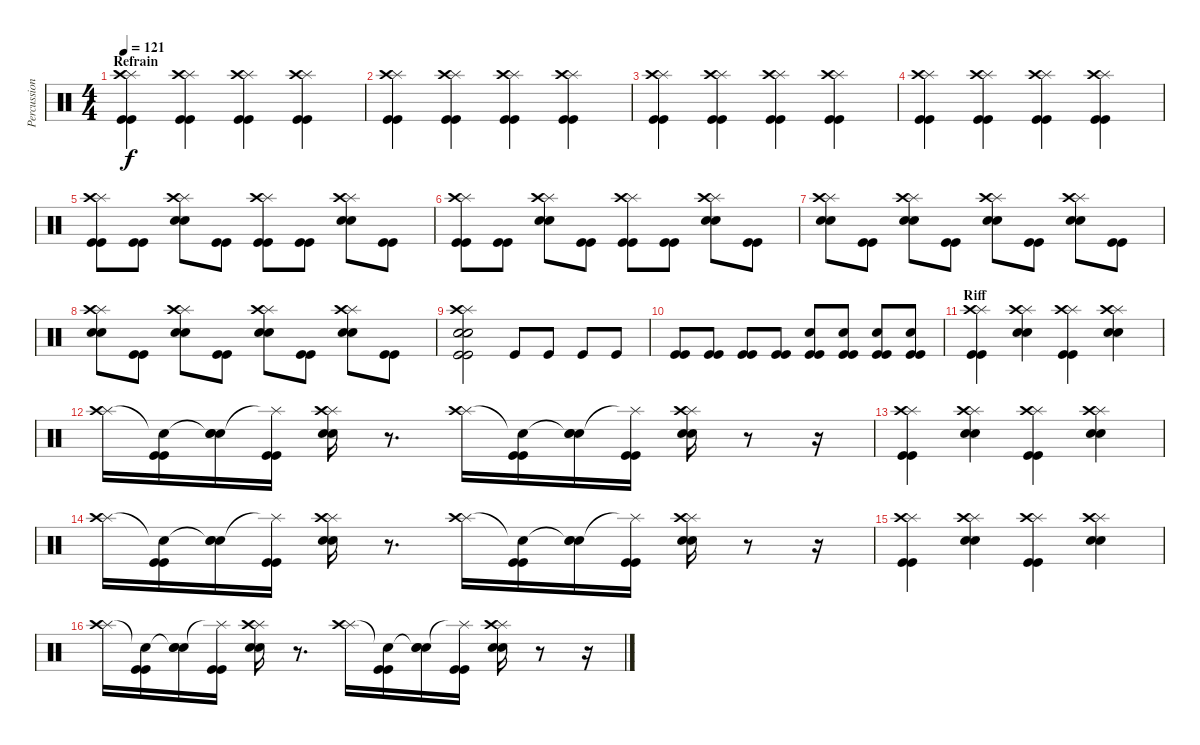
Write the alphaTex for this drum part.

\track ("Percussions" "Percussion") {instrument percussion}
\staff {score}
\articulation defaults
\ts (4 4)
\section ("" "Refrain")
\tempo 121
\clef neutral
\ks c
("Splash (hit)" "Crash high (hit)" "Kick (hit)" "Kick (hit)").4{dy f} ("Splash (hit)" "Crash high (hit)" "Kick (hit)" "Kick (hit)").4 ("Splash (hit)" "Crash high (hit)" "Kick (hit)" "Kick (hit)").4 ("Splash (hit)" "Crash high (hit)" "Kick (hit)" "Kick (hit)").4 |
("Splash (hit)" "Crash high (hit)" "Kick (hit)" "Kick (hit)").4 ("Splash (hit)" "Crash high (hit)" "Kick (hit)" "Kick (hit)").4 ("Splash (hit)" "Crash high (hit)" "Kick (hit)" "Kick (hit)").4 ("Splash (hit)" "Crash high (hit)" "Kick (hit)" "Kick (hit)").4 |
("Splash (hit)" "Crash high (hit)" "Kick (hit)" "Kick (hit)").4 ("Splash (hit)" "Crash high (hit)" "Kick (hit)" "Kick (hit)").4 ("Splash (hit)" "Crash high (hit)" "Kick (hit)" "Kick (hit)").4 ("Splash (hit)" "Crash high (hit)" "Kick (hit)" "Kick (hit)").4 |
("Splash (hit)" "Crash high (hit)" "Kick (hit)" "Kick (hit)").4 ("Splash (hit)" "Crash high (hit)" "Kick (hit)" "Kick (hit)").4 ("Splash (hit)" "Crash high (hit)" "Kick (hit)" "Kick (hit)").4 ("Splash (hit)" "Crash high (hit)" "Kick (hit)" "Kick (hit)").4 |
("Splash (hit)" "Crash high (hit)" "Kick (hit)" "Kick (hit)").8 ("Kick (hit)" "Kick (hit)").8 ("Splash (hit)" "Crash high (hit)" "Electric Snare (hit)" "Electric Snare (hit)").8 ("Kick (hit)" "Kick (hit)").8 ("Splash (hit)" "Crash high (hit)" "Kick (hit)" "Kick (hit)").8 ("Kick (hit)" "Kick (hit)").8 ("Splash (hit)" "Crash high (hit)" "Electric Snare (hit)" "Electric Snare (hit)").8 ("Kick (hit)" "Kick (hit)").8 |
("Splash (hit)" "Crash high (hit)" "Kick (hit)" "Kick (hit)").8 ("Kick (hit)" "Kick (hit)").8 ("Splash (hit)" "Crash high (hit)" "Electric Snare (hit)" "Electric Snare (hit)").8 ("Kick (hit)" "Kick (hit)").8 ("Splash (hit)" "Crash high (hit)" "Kick (hit)" "Kick (hit)").8 ("Kick (hit)" "Kick (hit)").8 ("Splash (hit)" "Crash high (hit)" "Electric Snare (hit)" "Electric Snare (hit)").8 ("Kick (hit)" "Kick (hit)").8 |
("Splash (hit)" "Crash high (hit)" "Electric Snare (hit)" "Electric Snare (hit)").8 ("Kick (hit)" "Kick (hit)").8 ("Splash (hit)" "Crash high (hit)" "Electric Snare (hit)" "Electric Snare (hit)").8 ("Kick (hit)" "Kick (hit)").8 ("Splash (hit)" "Crash high (hit)" "Electric Snare (hit)" "Electric Snare (hit)").8 ("Kick (hit)" "Kick (hit)").8 ("Splash (hit)" "Crash high (hit)" "Electric Snare (hit)" "Electric Snare (hit)").8 ("Kick (hit)" "Kick (hit)").8 |
("Splash (hit)" "Crash high (hit)" "Electric Snare (hit)" "Electric Snare (hit)").8 ("Kick (hit)" "Kick (hit)").8 ("Splash (hit)" "Crash high (hit)" "Electric Snare (hit)" "Electric Snare (hit)").8 ("Kick (hit)" "Kick (hit)").8 ("Splash (hit)" "Crash high (hit)" "Electric Snare (hit)" "Electric Snare (hit)").8 ("Kick (hit)" "Kick (hit)").8 ("Splash (hit)" "Crash high (hit)" "Electric Snare (hit)" "Electric Snare (hit)").8 ("Kick (hit)" "Kick (hit)").8 |
("Splash (hit)" "Crash high (hit)" "Electric Snare (hit)" "Electric Snare (hit)" "Kick (hit)" "Kick (hit)").2 "Kick (hit)".8 "Kick (hit)".8 "Kick (hit)".8 "Kick (hit)".8 |
("Kick (hit)" "Kick (hit)").8 ("Kick (hit)" "Kick (hit)").8 ("Kick (hit)" "Kick (hit)").8 ("Kick (hit)" "Kick (hit)").8 ("Electric Snare (hit)" "Kick (hit)" "Kick (hit)").8 ("Electric Snare (hit)" "Kick (hit)" "Kick (hit)").8 ("Electric Snare (hit)" "Kick (hit)" "Kick (hit)").8 ("Electric Snare (hit)" "Kick (hit)" "Kick (hit)").8 |
\section ("" "Riff")
("Splash (hit)" "Crash high (hit)" "Kick (hit)" "Kick (hit)").4 ("Splash (hit)" "Crash high (hit)" "Electric Snare (hit)" "Electric Snare (hit)").4 ("Splash (hit)" "Crash high (hit)" "Kick (hit)" "Kick (hit)").4 ("Splash (hit)" "Crash high (hit)" "Electric Snare (hit)" "Electric Snare (hit)").4 |
("Splash (hit)" "Crash high (hit)").16 ("Snare (hit)"{t} "Kick (hit)" "Kick (hit)").16 ("Snare (hit)"{t} "Electric Snare (hit)" "Electric Snare (hit)").16 ("Splash (hit)"{t} "Kick (hit)" "Kick (hit)").16 ("Splash (hit)" "Crash high (hit)" "Electric Snare (hit)" "Electric Snare (hit)").16 r.8{d} ("Splash (hit)" "Crash high (hit)").16 ("Snare (hit)"{t} "Kick (hit)" "Kick (hit)").16 ("Snare (hit)"{t} "Electric Snare (hit)" "Electric Snare (hit)").16 ("Splash (hit)"{t} "Kick (hit)" "Kick (hit)").16 ("Splash (hit)" "Crash high (hit)" "Electric Snare (hit)" "Electric Snare (hit)").16 r.8 r.16 |
("Splash (hit)" "Crash high (hit)" "Kick (hit)" "Kick (hit)").4 ("Splash (hit)" "Crash high (hit)" "Electric Snare (hit)" "Electric Snare (hit)").4 ("Splash (hit)" "Crash high (hit)" "Kick (hit)" "Kick (hit)").4 ("Splash (hit)" "Crash high (hit)" "Electric Snare (hit)" "Electric Snare (hit)").4 |
("Splash (hit)" "Crash high (hit)").16 ("Snare (hit)"{t} "Kick (hit)" "Kick (hit)").16 ("Snare (hit)"{t} "Electric Snare (hit)" "Electric Snare (hit)").16 ("Splash (hit)"{t} "Kick (hit)" "Kick (hit)").16 ("Splash (hit)" "Crash high (hit)" "Electric Snare (hit)" "Electric Snare (hit)").16 r.8{d} ("Splash (hit)" "Crash high (hit)").16 ("Snare (hit)"{t} "Kick (hit)" "Kick (hit)").16 ("Snare (hit)"{t} "Electric Snare (hit)" "Electric Snare (hit)").16 ("Splash (hit)"{t} "Kick (hit)" "Kick (hit)").16 ("Splash (hit)" "Crash high (hit)" "Electric Snare (hit)" "Electric Snare (hit)").16 r.8 r.16 |
("Splash (hit)" "Crash high (hit)" "Kick (hit)" "Kick (hit)").4 ("Splash (hit)" "Crash high (hit)" "Electric Snare (hit)" "Electric Snare (hit)").4 ("Splash (hit)" "Crash high (hit)" "Kick (hit)" "Kick (hit)").4 ("Splash (hit)" "Crash high (hit)" "Electric Snare (hit)" "Electric Snare (hit)").4 |
("Splash (hit)" "Crash high (hit)").16 ("Snare (hit)"{t} "Kick (hit)" "Kick (hit)").16 ("Snare (hit)"{t} "Electric Snare (hit)" "Electric Snare (hit)").16 ("Splash (hit)"{t} "Kick (hit)" "Kick (hit)").16 ("Splash (hit)" "Crash high (hit)" "Electric Snare (hit)" "Electric Snare (hit)").16 r.8{d} ("Splash (hit)" "Crash high (hit)").16 ("Snare (hit)"{t} "Kick (hit)" "Kick (hit)").16 ("Snare (hit)"{t} "Electric Snare (hit)" "Electric Snare (hit)").16 ("Splash (hit)"{t} "Kick (hit)" "Kick (hit)").16 ("Splash (hit)" "Crash high (hit)" "Electric Snare (hit)" "Electric Snare (hit)").16 r.8 r.16
